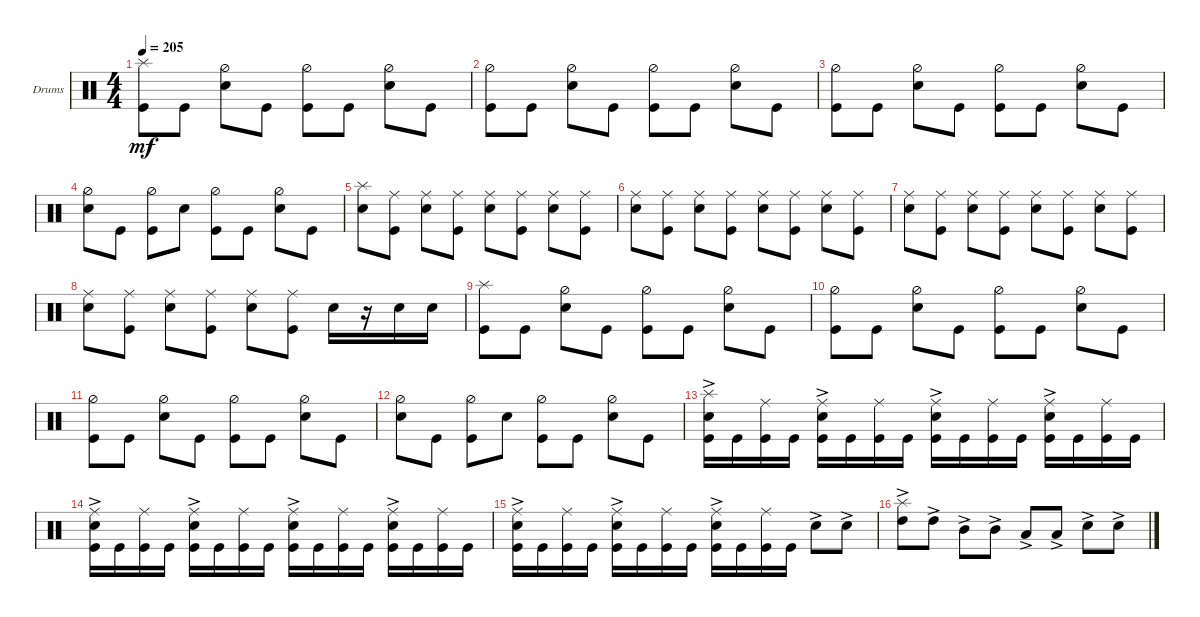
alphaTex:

\bracketExtendMode groupsimilarinstruments
\firstSystemTrackNameOrientation horizontal
\otherSystemsTrackNameOrientation horizontal
\track ("Drumkit" "Drums") {instrument percussion}
\staff {score}
\articulation defaults
\ts (4 4)
\tempo 205
\clef neutral
\ks c
("Kick (hit)" "Splash (hit)").8{dy mf} "Kick (hit)".8 ("Snare (hit) 2" "Hi-Hat (half)").8 "Kick (hit)".8 ("Kick (hit)" "Hi-Hat (half)").8 "Kick (hit)".8 ("Snare (hit) 2" "Hi-Hat (half)").8 "Kick (hit)".8 |
("Kick (hit)" "Hi-Hat (half)").8 "Kick (hit)".8 ("Snare (hit) 2" "Hi-Hat (half)").8 "Kick (hit)".8 ("Kick (hit)" "Hi-Hat (half)").8 "Kick (hit)".8 ("Snare (hit) 2" "Hi-Hat (half)").8 "Kick (hit)".8 |
("Kick (hit)" "Hi-Hat (half)").8 "Kick (hit)".8 ("Snare (hit) 2" "Hi-Hat (half)").8 "Kick (hit)".8 ("Kick (hit)" "Hi-Hat (half)").8 "Kick (hit)".8 ("Snare (hit) 2" "Hi-Hat (half)").8 "Kick (hit)".8 |
("Snare (hit) 2" "Hi-Hat (half)").8 "Kick (hit)".8 ("Kick (hit)" "Hi-Hat (half)").8 "Snare (hit) 2".8 ("Kick (hit)" "Hi-Hat (half)").8 "Kick (hit)".8 ("Snare (hit) 2" "Hi-Hat (half)").8 "Kick (hit)".8 |
("Snare (hit) 2" "Splash (hit)").8 ("Kick (hit)" "Ride (middle)").8 ("Snare (hit) 2" "Ride (middle)").8 ("Kick (hit)" "Ride (middle)").8 ("Snare (hit) 2" "Ride (middle)").8 ("Kick (hit)" "Ride (middle)").8 ("Snare (hit) 2" "Ride (middle)").8 ("Kick (hit)" "Ride (middle)").8 |
("Snare (hit) 2" "Ride (middle)").8 ("Kick (hit)" "Ride (middle)").8 ("Snare (hit) 2" "Ride (middle)").8 ("Kick (hit)" "Ride (middle)").8 ("Snare (hit) 2" "Ride (middle)").8 ("Kick (hit)" "Ride (middle)").8 ("Snare (hit) 2" "Ride (middle)").8 ("Kick (hit)" "Ride (middle)").8 |
("Snare (hit) 2" "Ride (middle)").8 ("Kick (hit)" "Ride (middle)").8 ("Snare (hit) 2" "Ride (middle)").8 ("Kick (hit)" "Ride (middle)").8 ("Snare (hit) 2" "Ride (middle)").8 ("Kick (hit)" "Ride (middle)").8 ("Snare (hit) 2" "Ride (middle)").8 ("Kick (hit)" "Ride (middle)").8 |
("Snare (hit) 2" "Ride (middle)").8 ("Kick (hit)" "Ride (middle)").8 ("Snare (hit) 2" "Ride (middle)").8 ("Kick (hit)" "Ride (middle)").8 ("Snare (hit) 2" "Ride (middle)").8 ("Kick (hit)" "Ride (middle)").8 "Snare (hit) 2".16 r.16 "Snare (hit) 2".16 "Snare (hit) 2".16 |
("Kick (hit)" "Splash (hit)").8 "Kick (hit)".8 ("Snare (hit) 2" "Hi-Hat (half)").8 "Kick (hit)".8 ("Kick (hit)" "Hi-Hat (half)").8 "Kick (hit)".8 ("Snare (hit) 2" "Hi-Hat (half)").8 "Kick (hit)".8 |
("Kick (hit)" "Hi-Hat (half)").8 "Kick (hit)".8 ("Snare (hit) 2" "Hi-Hat (half)").8 "Kick (hit)".8 ("Kick (hit)" "Hi-Hat (half)").8 "Kick (hit)".8 ("Snare (hit) 2" "Hi-Hat (half)").8 "Kick (hit)".8 |
("Kick (hit)" "Hi-Hat (half)").8 "Kick (hit)".8 ("Snare (hit) 2" "Hi-Hat (half)").8 "Kick (hit)".8 ("Kick (hit)" "Hi-Hat (half)").8 "Kick (hit)".8 ("Snare (hit) 2" "Hi-Hat (half)").8 "Kick (hit)".8 |
("Snare (hit) 2" "Hi-Hat (half)").8 "Kick (hit)".8 ("Kick (hit)" "Hi-Hat (half)").8 "Snare (hit) 2".8 ("Kick (hit)" "Hi-Hat (half)").8 "Kick (hit)".8 ("Snare (hit) 2" "Hi-Hat (half)").8 "Kick (hit)".8 |
("Snare (hit) 2"{ac} "Kick (hit)" "Splash (hit)").16 "Kick (hit)".16 ("Kick (hit)" "Ride (middle)").16 "Kick (hit)".16 ("Snare (hit) 2"{ac} "Kick (hit)" "Ride (middle)").16 "Kick (hit)".16 ("Kick (hit)" "Ride (middle)").16 "Kick (hit)".16 ("Snare (hit) 2"{ac} "Kick (hit)" "Ride (middle)").16 "Kick (hit)".16 ("Kick (hit)" "Ride (middle)").16 "Kick (hit)".16 ("Snare (hit) 2"{ac} "Kick (hit)" "Ride (middle)").16 "Kick (hit)".16 ("Kick (hit)" "Ride (middle)").16 "Kick (hit)".16 |
("Snare (hit) 2"{ac} "Kick (hit)" "Ride (middle)").16 "Kick (hit)".16 ("Kick (hit)" "Ride (middle)").16 "Kick (hit)".16 ("Snare (hit) 2"{ac} "Kick (hit)" "Ride (middle)").16 "Kick (hit)".16 ("Kick (hit)" "Ride (middle)").16 "Kick (hit)".16 ("Snare (hit) 2"{ac} "Kick (hit)" "Ride (middle)").16 "Kick (hit)".16 ("Kick (hit)" "Ride (middle)").16 "Kick (hit)".16 ("Snare (hit) 2"{ac} "Kick (hit)" "Ride (middle)").16 "Kick (hit)".16 ("Kick (hit)" "Ride (middle)").16 "Kick (hit)".16 |
("Snare (hit) 2"{ac} "Kick (hit)" "Ride (middle)").16 "Kick (hit)".16 ("Kick (hit)" "Ride (middle)").16 "Kick (hit)".16 ("Snare (hit) 2"{ac} "Kick (hit)" "Ride (middle)").16 "Kick (hit)".16 ("Kick (hit)" "Ride (middle)").16 "Kick (hit)".16 ("Snare (hit) 2"{ac} "Kick (hit)" "Ride (middle)").16 "Kick (hit)".16 ("Kick (hit)" "Ride (middle)").16 "Kick (hit)".16 "Snare (hit) 2"{ac}.8 "Snare (hit) 2"{ac}.8 |
("High Tom (hit)"{ac} "Splash (hit)").8 "High Tom (hit)"{ac}.8 "Mid Tom (hit)"{ac}.8 "Mid Tom (hit)"{ac}.8 "Low Tom (hit)"{ac}.8 "Low Tom (hit)"{ac}.8 "Snare (hit) 2"{ac}.8 "Snare (hit) 2"{ac}.8
